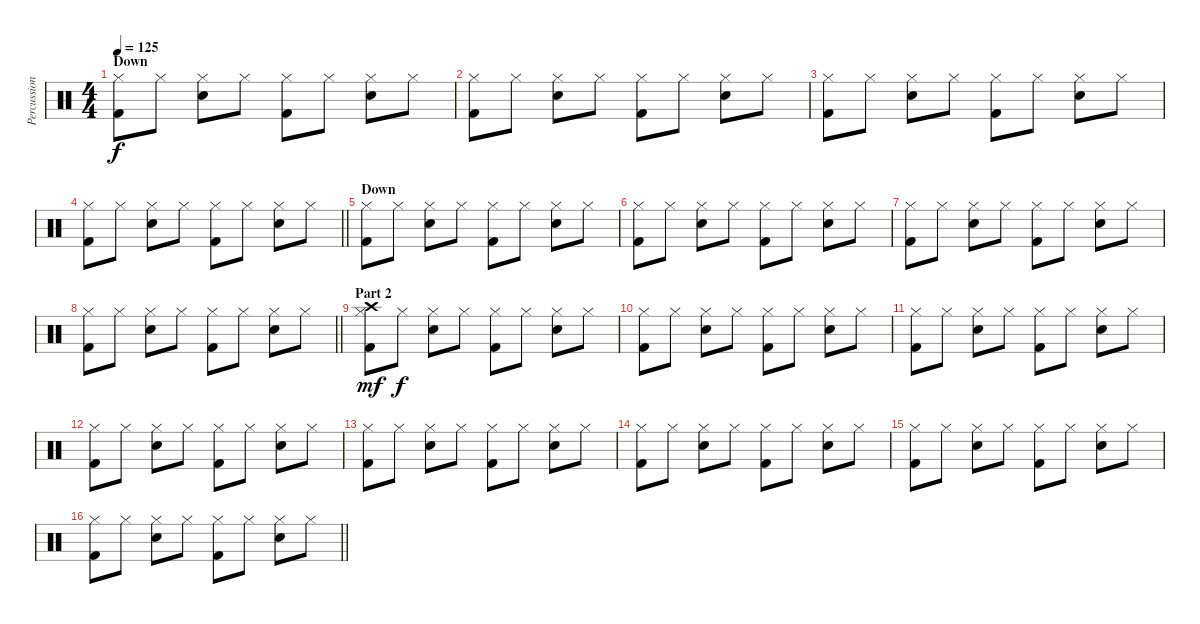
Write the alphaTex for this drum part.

\track ("Percussion" "Percussion") {instrument percussion}
\staff {score}
\articulation defaults
\ts (4 4)
\section ("" "Down")
\tempo 125
\clef neutral
\ks c
("Hi-Hat (closed)" "Kick (hit) 2").8{dy f} "Hi-Hat (closed)".8 ("Hi-Hat (closed)" "Electric Snare (hit)").8 "Hi-Hat (closed)".8 ("Hi-Hat (closed)" "Kick (hit) 2").8 "Hi-Hat (closed)".8 ("Hi-Hat (closed)" "Electric Snare (hit)").8 "Hi-Hat (closed)".8 |
("Hi-Hat (closed)" "Kick (hit) 2").8 "Hi-Hat (closed)".8 ("Hi-Hat (closed)" "Electric Snare (hit)").8 "Hi-Hat (closed)".8 ("Hi-Hat (closed)" "Kick (hit) 2").8 "Hi-Hat (closed)".8 ("Hi-Hat (closed)" "Electric Snare (hit)").8 "Hi-Hat (closed)".8 |
("Hi-Hat (closed)" "Kick (hit) 2").8 "Hi-Hat (closed)".8 ("Hi-Hat (closed)" "Electric Snare (hit)").8 "Hi-Hat (closed)".8 ("Hi-Hat (closed)" "Kick (hit) 2").8 "Hi-Hat (closed)".8 ("Hi-Hat (closed)" "Electric Snare (hit)").8 "Hi-Hat (closed)".8 |
\barLineRight lightlight
("Hi-Hat (closed)" "Kick (hit) 2").8 "Hi-Hat (closed)".8 ("Hi-Hat (closed)" "Electric Snare (hit)").8 "Hi-Hat (closed)".8 ("Hi-Hat (closed)" "Kick (hit) 2").8 "Hi-Hat (closed)".8 ("Hi-Hat (closed)" "Electric Snare (hit)").8 "Hi-Hat (closed)".8 |
\section ("" "Down")
("Hi-Hat (closed)" "Kick (hit) 2").8 "Hi-Hat (closed)".8 ("Hi-Hat (closed)" "Electric Snare (hit)").8 "Hi-Hat (closed)".8 ("Hi-Hat (closed)" "Kick (hit) 2").8 "Hi-Hat (closed)".8 ("Hi-Hat (closed)" "Electric Snare (hit)").8 "Hi-Hat (closed)".8 |
("Hi-Hat (closed)" "Kick (hit) 2").8 "Hi-Hat (closed)".8 ("Hi-Hat (closed)" "Electric Snare (hit)").8 "Hi-Hat (closed)".8 ("Hi-Hat (closed)" "Kick (hit) 2").8 "Hi-Hat (closed)".8 ("Hi-Hat (closed)" "Electric Snare (hit)").8 "Hi-Hat (closed)".8 |
("Hi-Hat (closed)" "Kick (hit) 2").8 "Hi-Hat (closed)".8 ("Hi-Hat (closed)" "Electric Snare (hit)").8 "Hi-Hat (closed)".8 ("Hi-Hat (closed)" "Kick (hit) 2").8 "Hi-Hat (closed)".8 ("Hi-Hat (closed)" "Electric Snare (hit)").8 "Hi-Hat (closed)".8 |
\barLineRight lightlight
("Hi-Hat (closed)" "Kick (hit) 2").8 "Hi-Hat (closed)".8 ("Hi-Hat (closed)" "Electric Snare (hit)").8 "Hi-Hat (closed)".8 ("Hi-Hat (closed)" "Kick (hit) 2").8 "Hi-Hat (closed)".8 ("Hi-Hat (closed)" "Electric Snare (hit)").8 "Hi-Hat (closed)".8 |
\section ("" "Part 2")
("Hi-Hat (closed)" "Kick (hit) 2" "Crash high (hit)").8{dy mf} "Hi-Hat (closed)".8{dy f} ("Hi-Hat (closed)" "Electric Snare (hit)").8 "Hi-Hat (closed)".8 ("Hi-Hat (closed)" "Kick (hit) 2").8 "Hi-Hat (closed)".8 ("Hi-Hat (closed)" "Electric Snare (hit)").8 "Hi-Hat (closed)".8 |
("Hi-Hat (closed)" "Kick (hit) 2").8 "Hi-Hat (closed)".8 ("Hi-Hat (closed)" "Electric Snare (hit)").8 "Hi-Hat (closed)".8 ("Hi-Hat (closed)" "Kick (hit) 2").8 "Hi-Hat (closed)".8 ("Hi-Hat (closed)" "Electric Snare (hit)").8 "Hi-Hat (closed)".8 |
("Hi-Hat (closed)" "Kick (hit) 2").8 "Hi-Hat (closed)".8 ("Hi-Hat (closed)" "Electric Snare (hit)").8 "Hi-Hat (closed)".8 ("Hi-Hat (closed)" "Kick (hit) 2").8 "Hi-Hat (closed)".8 ("Hi-Hat (closed)" "Electric Snare (hit)").8 "Hi-Hat (closed)".8 |
("Hi-Hat (closed)" "Kick (hit) 2").8 "Hi-Hat (closed)".8 ("Hi-Hat (closed)" "Electric Snare (hit)").8 "Hi-Hat (closed)".8 ("Hi-Hat (closed)" "Kick (hit) 2").8 "Hi-Hat (closed)".8 ("Hi-Hat (closed)" "Electric Snare (hit)").8 "Hi-Hat (closed)".8 |
("Hi-Hat (closed)" "Kick (hit) 2").8 "Hi-Hat (closed)".8 ("Hi-Hat (closed)" "Electric Snare (hit)").8 "Hi-Hat (closed)".8 ("Hi-Hat (closed)" "Kick (hit) 2").8 "Hi-Hat (closed)".8 ("Hi-Hat (closed)" "Electric Snare (hit)").8 "Hi-Hat (closed)".8 |
("Hi-Hat (closed)" "Kick (hit) 2").8 "Hi-Hat (closed)".8 ("Hi-Hat (closed)" "Electric Snare (hit)").8 "Hi-Hat (closed)".8 ("Hi-Hat (closed)" "Kick (hit) 2").8 "Hi-Hat (closed)".8 ("Hi-Hat (closed)" "Electric Snare (hit)").8 "Hi-Hat (closed)".8 |
("Hi-Hat (closed)" "Kick (hit) 2").8 "Hi-Hat (closed)".8 ("Hi-Hat (closed)" "Electric Snare (hit)").8 "Hi-Hat (closed)".8 ("Hi-Hat (closed)" "Kick (hit) 2").8 "Hi-Hat (closed)".8 ("Hi-Hat (closed)" "Electric Snare (hit)").8 "Hi-Hat (closed)".8 |
\barLineRight lightlight
("Hi-Hat (closed)" "Kick (hit) 2").8 "Hi-Hat (closed)".8 ("Hi-Hat (closed)" "Electric Snare (hit)").8 "Hi-Hat (closed)".8 ("Hi-Hat (closed)" "Kick (hit) 2").8 "Hi-Hat (closed)".8 ("Hi-Hat (closed)" "Electric Snare (hit)").8 "Hi-Hat (closed)".8
